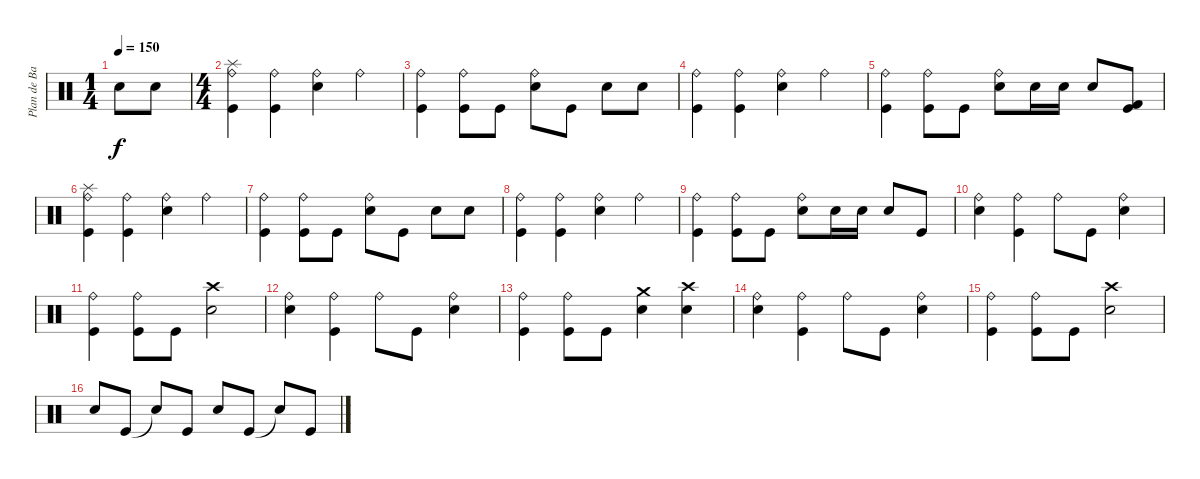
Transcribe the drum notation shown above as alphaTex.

\track ("Plan de Batterie" "Plan de Ba") {instrument percussion}
\staff {score}
\articulation defaults
\ts (1 4)
\tempo 150
\clef neutral
\ks c "Electric Snare (hit)".8{dy f} "Electric Snare (hit)".8
|
\ts (4 4)
("Splash (hit)" "Ride (bell)" "Kick (hit)").4 ("Ride (bell)" "Kick (hit)").4 ("Electric Snare (hit)" "Ride (bell)").4 "Ride (bell)".4 |
("Ride (bell)" "Kick (hit)").4 ("Ride (bell)" "Kick (hit)").8 "Kick (hit)".8 ("Electric Snare (hit)" "Ride (bell)").8 "Kick (hit)".8 "Electric Snare (hit)".8 "Electric Snare (hit)".8 |
("Ride (bell)" "Kick (hit)").4 ("Ride (bell)" "Kick (hit)").4 ("Electric Snare (hit)" "Ride (bell)").4 "Ride (bell)".4 |
("Ride (bell)" "Kick (hit)").4 ("Ride (bell)" "Kick (hit)").8 "Kick (hit)".8 ("Electric Snare (hit)" "Ride (bell)").8 "Electric Snare (hit)".16 "Electric Snare (hit)".16 "Snare (hit) 2".8 ("Kick (hit) 2" "Kick (hit)").8 |
("Splash (hit)" "Ride (bell)" "Kick (hit)").4 ("Ride (bell)" "Kick (hit)").4 ("Electric Snare (hit)" "Ride (bell)").4 "Ride (bell)".4 |
("Ride (bell)" "Kick (hit)").4 ("Ride (bell)" "Kick (hit)").8 "Kick (hit)".8 ("Electric Snare (hit)" "Ride (bell)").8 "Kick (hit)".8 "Electric Snare (hit)".8 "Electric Snare (hit)".8 |
("Ride (bell)" "Kick (hit)").4 ("Ride (bell)" "Kick (hit)").4 ("Electric Snare (hit)" "Ride (bell)").4 "Ride (bell)".4 |
("Ride (bell)" "Kick (hit)").4 ("Ride (bell)" "Kick (hit)").8 "Kick (hit)".8 ("Electric Snare (hit)" "Ride (bell)").8 "Electric Snare (hit)".16 "Electric Snare (hit)".16 "Electric Snare (hit)".8 "Kick (hit)".8 |
("Ride (bell)" "Electric Snare (hit)").4 ("Ride (bell)" "Kick (hit)").4 "Ride (bell)".8 "Kick (hit)".8 ("Electric Snare (hit)" "Ride (bell)").4 |
("Ride (bell)" "Kick (hit)").4 ("Ride (bell)" "Kick (hit)").8 "Kick (hit)".8 ("Electric Snare (hit)" "Crash high (hit)").2 |
("Ride (bell)" "Electric Snare (hit)").4 ("Ride (bell)" "Kick (hit)").4 "Ride (bell)".8 "Kick (hit)".8 ("Electric Snare (hit)" "Ride (bell)").4 |
("Ride (bell)" "Kick (hit)").4 ("Ride (bell)" "Kick (hit)").8 "Kick (hit)".8 ("Electric Snare (hit)" "Crash medium (hit)").4 ("Electric Snare (hit)" "Crash high (hit)").4 |
("Ride (bell)" "Electric Snare (hit)").4 ("Ride (bell)" "Kick (hit)").4 "Ride (bell)".8 "Kick (hit)".8 ("Electric Snare (hit)" "Ride (bell)").4 |
("Ride (bell)" "Kick (hit)").4 ("Ride (bell)" "Kick (hit)").8 "Kick (hit)".8 ("Electric Snare (hit)" "Crash high (hit)").2 |
"Electric Snare (hit)".8 "Kick (hit)".8 "Snare (hit)"{t}.8 "Kick (hit)".8 "Electric Snare (hit)".8 "Kick (hit)".8 "Snare (hit)"{t}.8 "Kick (hit)".8
